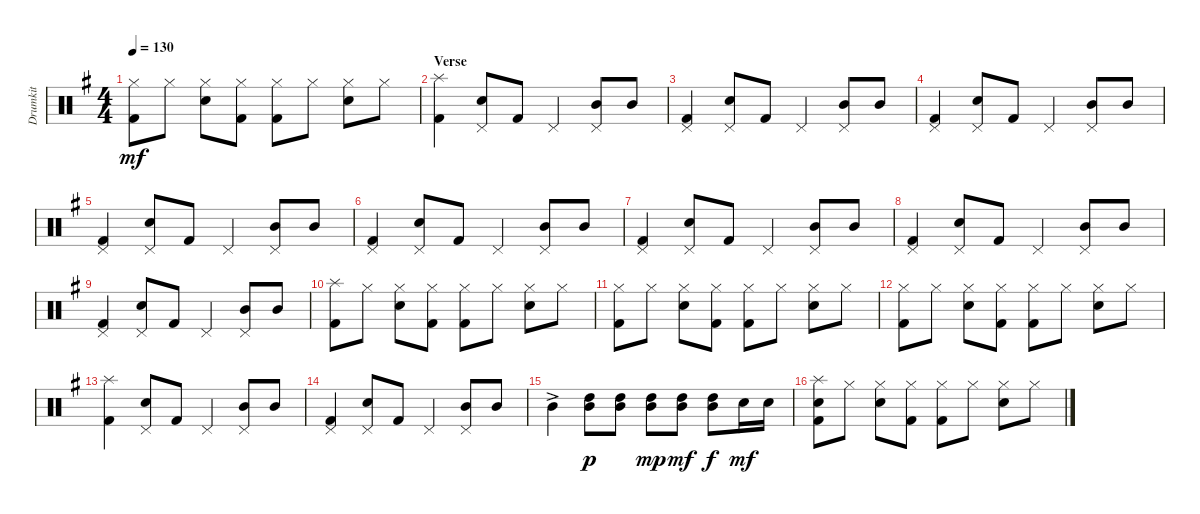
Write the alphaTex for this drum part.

\track ("Drumkit" "Drumkit") {instrument percussion}
\staff {score}
\articulation defaults
\ts (4 4)
\tempo 130
\clef neutral
\ks g
("Hi-Hat (closed)" "Kick (hit) 2").8{dy mf} "Hi-Hat (closed)".8 ("Hi-Hat (closed)" "Snare (hit) 2").8 ("Hi-Hat (closed)" "Kick (hit) 2").8 ("Hi-Hat (closed)" "Kick (hit) 2").8 "Hi-Hat (closed)".8 ("Hi-Hat (closed)" "Snare (hit) 2").8 "Hi-Hat (closed)".8 |
\section ("" "Verse")
("Kick (hit) 2" "Splash (hit)").4 ("Snare (hit) 2" "Pedal Hi-Hat (hit)").8 "Kick (hit) 2".8 "Pedal Hi-Hat (hit)".4 ("Pedal Hi-Hat (hit)" "Mid Tom (hit)").8 "Mid Tom (hit)".8 |
("Pedal Hi-Hat (hit)" "Kick (hit) 2").4 ("Pedal Hi-Hat (hit)" "Snare (hit) 2").8 "Kick (hit) 2".8 "Pedal Hi-Hat (hit)".4 ("Pedal Hi-Hat (hit)" "Mid Tom (hit)").8 "Mid Tom (hit)".8 |
("Pedal Hi-Hat (hit)" "Kick (hit) 2").4 ("Pedal Hi-Hat (hit)" "Snare (hit) 2").8 "Kick (hit) 2".8 "Pedal Hi-Hat (hit)".4 ("Pedal Hi-Hat (hit)" "Mid Tom (hit)").8 "Mid Tom (hit)".8 |
("Pedal Hi-Hat (hit)" "Kick (hit) 2").4 ("Pedal Hi-Hat (hit)" "Snare (hit) 2").8 "Kick (hit) 2".8 "Pedal Hi-Hat (hit)".4 ("Pedal Hi-Hat (hit)" "Mid Tom (hit)").8 "Mid Tom (hit)".8 |
("Pedal Hi-Hat (hit)" "Kick (hit) 2").4 ("Pedal Hi-Hat (hit)" "Snare (hit) 2").8 "Kick (hit) 2".8 "Pedal Hi-Hat (hit)".4 ("Pedal Hi-Hat (hit)" "Mid Tom (hit)").8 "Mid Tom (hit)".8 |
("Pedal Hi-Hat (hit)" "Kick (hit) 2").4 ("Pedal Hi-Hat (hit)" "Snare (hit) 2").8 "Kick (hit) 2".8 "Pedal Hi-Hat (hit)".4 ("Pedal Hi-Hat (hit)" "Mid Tom (hit)").8 "Mid Tom (hit)".8 |
("Pedal Hi-Hat (hit)" "Kick (hit) 2").4 ("Pedal Hi-Hat (hit)" "Snare (hit) 2").8 "Kick (hit) 2".8 "Pedal Hi-Hat (hit)".4 ("Pedal Hi-Hat (hit)" "Mid Tom (hit)").8 "Mid Tom (hit)".8 |
("Pedal Hi-Hat (hit)" "Kick (hit) 2").4 ("Pedal Hi-Hat (hit)" "Snare (hit) 2").8 "Kick (hit) 2".8 "Pedal Hi-Hat (hit)".4 ("Pedal Hi-Hat (hit)" "Mid Tom (hit)").8 "Mid Tom (hit)".8 |
("Splash (hit)" "Kick (hit) 2").8 "Hi-Hat (closed)".8 ("Hi-Hat (closed)" "Snare (hit) 2").8 ("Hi-Hat (closed)" "Kick (hit) 2").8 ("Hi-Hat (closed)" "Kick (hit) 2").8 "Hi-Hat (closed)".8 ("Hi-Hat (closed)" "Snare (hit) 2").8 "Hi-Hat (closed)".8 |
("Hi-Hat (closed)" "Kick (hit) 2").8 "Hi-Hat (closed)".8 ("Hi-Hat (closed)" "Snare (hit) 2").8 ("Hi-Hat (closed)" "Kick (hit) 2").8 ("Hi-Hat (closed)" "Kick (hit) 2").8 "Hi-Hat (closed)".8 ("Hi-Hat (closed)" "Snare (hit) 2").8 "Hi-Hat (closed)".8 |
("Hi-Hat (closed)" "Kick (hit) 2").8 "Hi-Hat (closed)".8 ("Hi-Hat (closed)" "Snare (hit) 2").8 ("Hi-Hat (closed)" "Kick (hit) 2").8 ("Hi-Hat (closed)" "Kick (hit) 2").8 "Hi-Hat (closed)".8 ("Hi-Hat (closed)" "Snare (hit) 2").8 "Hi-Hat (closed)".8 |
("Kick (hit) 2" "Splash (hit)").4 ("Snare (hit) 2" "Pedal Hi-Hat (hit)").8 "Kick (hit) 2".8 "Pedal Hi-Hat (hit)".4 ("Pedal Hi-Hat (hit)" "Mid Tom (hit)").8 "Mid Tom (hit)".8 |
("Pedal Hi-Hat (hit)" "Kick (hit) 2").4 ("Pedal Hi-Hat (hit)" "Snare (hit) 2").8 "Kick (hit) 2".8 "Pedal Hi-Hat (hit)".4 ("Pedal Hi-Hat (hit)" "Mid Tom (hit)").8 "Mid Tom (hit)".8 |
"Mid Tom (hit)"{ac}.4 ("Mid Tom (hit)" "High Tom (hit)").8{dy p} ("Mid Tom (hit)" "High Tom (hit)").8 ("Mid Tom (hit)" "High Tom (hit)").8{dy mp} ("Mid Tom (hit)" "High Tom (hit)").8{dy mf} ("Mid Tom (hit)" "High Tom (hit)").8{dy f} "Snare (hit) 2".16{dy mf} "Snare (hit) 2".16 |
("Snare (hit) 2" "Splash (hit)" "Kick (hit) 2").8 "Hi-Hat (closed)".8 ("Hi-Hat (closed)" "Snare (hit) 2").8 ("Hi-Hat (closed)" "Kick (hit) 2").8 ("Hi-Hat (closed)" "Kick (hit) 2").8 "Hi-Hat (closed)".8 ("Hi-Hat (closed)" "Snare (hit) 2").8 "Hi-Hat (closed)".8
